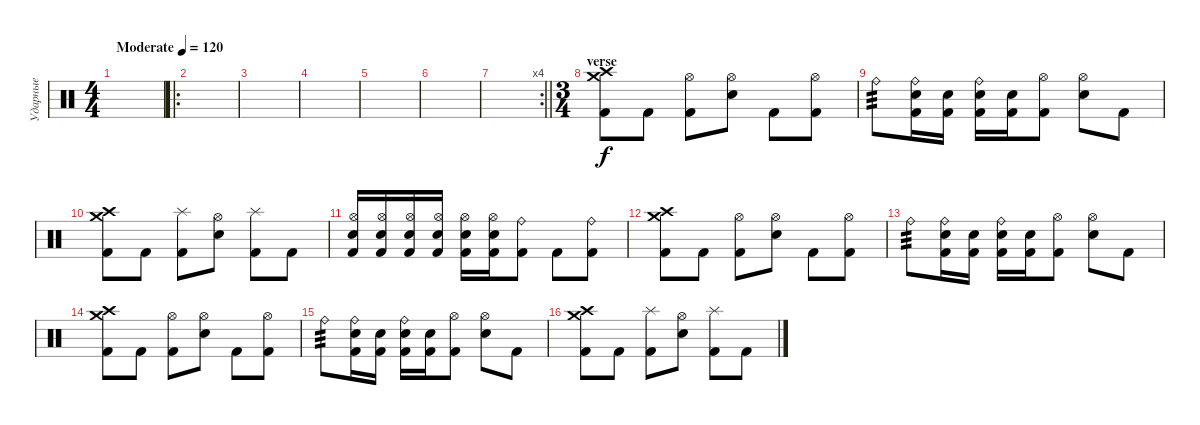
\track ("Ударные" "Ударные") {instrument percussion}
\staff {score}
\articulation defaults
\ts (4 4)
\tempo (120 "Moderate")
\clef neutral
\ks c
|
\ro
|
|
|
|
|
\rc 4
\barLineRight lightlight
|
\ts (3 4)
\section ("" "verse")
("Crash high (hit)" "Crash medium (hit)" "Kick (hit) 2").8 "Kick (hit) 2".8 ("Hi-Hat (open)" "Kick (hit) 2").8 ("Hi-Hat (open)" "Electric Snare (hit)").8 "Kick (hit) 2".8 ("Hi-Hat (open)" "Kick (hit) 2").8 |
"Ride (bell)".8{tp 3} ("Ride (bell)" "Electric Snare (hit)" "Kick (hit) 2").16 ("Electric Snare (hit)" "Kick (hit) 2").16 ("Ride (bell)" "Electric Snare (hit)" "Kick (hit) 2").16 ("Electric Snare (hit)" "Kick (hit) 2").16 ("Hi-Hat (open)" "Kick (hit) 2").8 ("Hi-Hat (open)" "Electric Snare (hit)").8 "Kick (hit) 2".8 |
("Crash high (hit)" "Crash medium (hit)" "Kick (hit) 2").8 "Kick (hit) 2".8 ("Splash (hit)" "Kick (hit) 2").8 ("Hi-Hat (open)" "Electric Snare (hit)").8 ("Splash (hit)" "Kick (hit) 2").8 "Kick (hit) 2".8 |
("Hi-Hat (open)" "Electric Snare (hit)" "Kick (hit) 2").16 ("Hi-Hat (open)" "Electric Snare (hit)" "Kick (hit) 2").16 ("Hi-Hat (open)" "Electric Snare (hit)" "Kick (hit) 2").16 ("Hi-Hat (open)" "Electric Snare (hit)" "Kick (hit) 2").16 ("Hi-Hat (open)" "Electric Snare (hit)" "Kick (hit) 2").16 ("Hi-Hat (open)" "Electric Snare (hit)" "Kick (hit) 2").16 ("Ride (bell)" "Kick (hit) 2").8 "Kick (hit) 2".8 ("Ride (bell)" "Kick (hit) 2").8 |
("Crash high (hit)" "Crash medium (hit)" "Kick (hit) 2").8 "Kick (hit) 2".8 ("Hi-Hat (open)" "Kick (hit) 2").8 ("Hi-Hat (open)" "Electric Snare (hit)").8 "Kick (hit) 2".8 ("Hi-Hat (open)" "Kick (hit) 2").8 |
"Ride (bell)".8{tp 3} ("Ride (bell)" "Electric Snare (hit)" "Kick (hit) 2").16 ("Electric Snare (hit)" "Kick (hit) 2").16 ("Ride (bell)" "Electric Snare (hit)" "Kick (hit) 2").16 ("Electric Snare (hit)" "Kick (hit) 2").16 ("Hi-Hat (open)" "Kick (hit) 2").8 ("Hi-Hat (open)" "Electric Snare (hit)").8 "Kick (hit) 2".8 |
("Crash high (hit)" "Crash medium (hit)" "Kick (hit) 2").8 "Kick (hit) 2".8 ("Hi-Hat (open)" "Kick (hit) 2").8 ("Hi-Hat (open)" "Electric Snare (hit)").8 "Kick (hit) 2".8 ("Hi-Hat (open)" "Kick (hit) 2").8 |
"Ride (bell)".8{tp 3} ("Ride (bell)" "Electric Snare (hit)" "Kick (hit) 2").16 ("Electric Snare (hit)" "Kick (hit) 2").16 ("Ride (bell)" "Electric Snare (hit)" "Kick (hit) 2").16 ("Electric Snare (hit)" "Kick (hit) 2").16 ("Hi-Hat (open)" "Kick (hit) 2").8 ("Hi-Hat (open)" "Electric Snare (hit)").8 "Kick (hit) 2".8 |
("Crash high (hit)" "Crash medium (hit)" "Kick (hit) 2").8 "Kick (hit) 2".8 ("Splash (hit)" "Kick (hit) 2").8 ("Hi-Hat (open)" "Electric Snare (hit)").8 ("Splash (hit)" "Kick (hit) 2").8 "Kick (hit) 2".8
